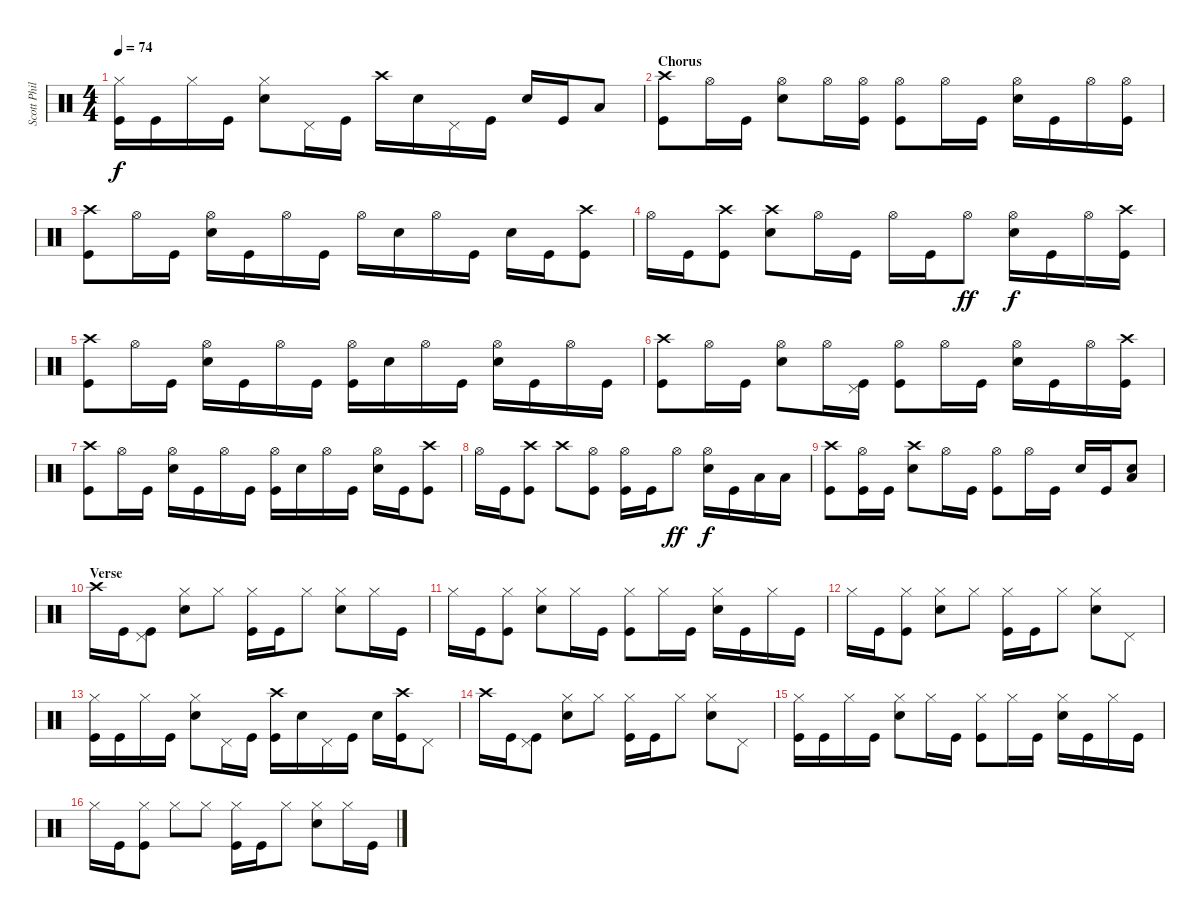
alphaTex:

\track ("Scott Phillips" "Scott Phil") {instrument percussion}
\staff {score}
\articulation defaults
\ts (4 4)
\tempo 74
\clef neutral
\ks c
("Hi-Hat (closed)" "Kick (hit)").16{dy f} "Kick (hit)".16 "Hi-Hat (closed)".16 "Kick (hit)".16 ("Hi-Hat (closed)" "Snare (hit) 2").8 "Pedal Hi-Hat (hit)".16 "Kick (hit)".16 "Crash high (hit)".16 "Snare (hit) 2".16 "Pedal Hi-Hat (hit)".16 "Kick (hit)".16 "Snare (hit) 2".16 "Kick (hit)".16 "Low Tom (hit)".8 |
\section ("" "Chorus")
("Crash high (hit)" "Kick (hit)").8 "Hi-Hat (open)".16 "Kick (hit)".16 ("Hi-Hat (open)" "Snare (hit) 2").8 "Hi-Hat (open)".16 ("Hi-Hat (open)" "Kick (hit)").16 ("Hi-Hat (open)" "Kick (hit)").8 "Hi-Hat (open)".16 "Kick (hit)".16 ("Hi-Hat (open)" "Snare (hit) 2").16 "Kick (hit)".16 "Hi-Hat (open)".16 ("Hi-Hat (open)" "Kick (hit)").16 |
("Crash high (hit)" "Kick (hit)").8 "Hi-Hat (open)".16 "Kick (hit)".16 ("Hi-Hat (open)" "Snare (hit) 2").16 "Kick (hit)".16 "Hi-Hat (open)".16 "Kick (hit)".16 "Hi-Hat (open)".16 "Snare (hit) 2".16 "Hi-Hat (open)".16 "Kick (hit)".16 "Snare (hit) 2".16 "Kick (hit)".16 ("Crash high (hit)" "Kick (hit)").8 |
"Hi-Hat (open)".16 "Kick (hit)".16 ("Crash high (hit)" "Kick (hit)").8 ("Crash high (hit)" "Snare (hit) 2").8 "Hi-Hat (open)".16 "Kick (hit)".16 "Hi-Hat (open)".16 "Kick (hit)".16 "Hi-Hat (open)".8{dy ff} ("Hi-Hat (open)" "Snare (hit) 2").16{dy f} "Kick (hit)".16 "Hi-Hat (open)".16 ("Crash high (hit)" "Kick (hit)").16 |
("Crash high (hit)" "Kick (hit)").8 "Hi-Hat (open)".16 "Kick (hit)".16 ("Hi-Hat (open)" "Snare (hit) 2").16 "Kick (hit)".16 "Hi-Hat (open)".16 "Kick (hit)".16 ("Hi-Hat (open)" "Kick (hit)").16 "Snare (hit) 2".16 "Hi-Hat (open)".16 "Kick (hit)".16 ("Hi-Hat (open)" "Snare (hit) 2").16 "Kick (hit)".16 "Hi-Hat (open)".16 "Kick (hit)".16 |
("Crash high (hit)" "Kick (hit)").8 "Hi-Hat (open)".16 "Kick (hit)".16 ("Hi-Hat (open)" "Snare (hit) 2").8 "Hi-Hat (open)".16 ("Pedal Hi-Hat (hit)" "Kick (hit)").16 ("Hi-Hat (open)" "Kick (hit)").8 "Hi-Hat (open)".16 "Kick (hit)".16 ("Hi-Hat (open)" "Snare (hit) 2").16 "Kick (hit)".16 "Hi-Hat (open)".16 ("Crash high (hit)" "Kick (hit)").16 |
("Crash high (hit)" "Kick (hit)").8 "Hi-Hat (open)".16 "Kick (hit)".16 ("Hi-Hat (open)" "Snare (hit) 2").16 "Kick (hit)".16 "Hi-Hat (open)".16 "Kick (hit)".16 ("Hi-Hat (open)" "Kick (hit)").16 "Snare (hit) 2".16 "Hi-Hat (open)".16 "Kick (hit)".16 ("Hi-Hat (open)" "Snare (hit) 2").16 "Kick (hit)".16 ("Crash high (hit)" "Kick (hit)").8 |
"Hi-Hat (open)".16 "Kick (hit)".16 ("Crash high (hit)" "Kick (hit)").8 "Crash high (hit)".8 ("Hi-Hat (open)" "Kick (hit)").8 ("Hi-Hat (open)" "Kick (hit)").16 "Kick (hit)".16 "Hi-Hat (open)".8{dy ff} ("Hi-Hat (open)" "Snare (hit) 2").16{dy f} "Kick (hit)".16 "Low Tom (hit)".16 "Low Tom (hit)".16 |
("Crash high (hit)" "Kick (hit)").8 ("Hi-Hat (open)" "Kick (hit)").16 "Kick (hit)".16 ("Crash high (hit)" "Snare (hit) 2").8 "Hi-Hat (open)".16 "Kick (hit)".16 ("Hi-Hat (open)" "Kick (hit)").8 "Hi-Hat (open)".16 "Kick (hit)".16 "Snare (hit) 2".16 "Kick (hit)".16 ("Low Tom (hit)" "Snare (hit) 2").8 |
\section ("" "Verse")
"Crash high (hit)".16 "Kick (hit)".16 ("Pedal Hi-Hat (hit)" "Kick (hit)").8 ("Hi-Hat (closed)" "Snare (hit) 2").8 "Hi-Hat (closed)".8 ("Hi-Hat (closed)" "Kick (hit)").16 "Kick (hit)".16 "Hi-Hat (closed)".8 ("Hi-Hat (closed)" "Snare (hit) 2").8 "Hi-Hat (closed)".16 "Kick (hit)".16 |
"Hi-Hat (closed)".16 "Kick (hit)".16 ("Hi-Hat (closed)" "Kick (hit)").8 ("Hi-Hat (closed)" "Snare (hit) 2").8 "Hi-Hat (closed)".16 "Kick (hit)".16 ("Hi-Hat (closed)" "Kick (hit)").8 "Hi-Hat (closed)".16 "Kick (hit)".16 ("Hi-Hat (closed)" "Snare (hit) 2").16 "Kick (hit)".16 "Hi-Hat (closed)".16 "Kick (hit)".16 |
"Hi-Hat (closed)".16 "Kick (hit)".16 ("Hi-Hat (closed)" "Kick (hit)").8 ("Hi-Hat (closed)" "Snare (hit) 2").8 "Hi-Hat (closed)".8 ("Hi-Hat (closed)" "Kick (hit)").16 "Kick (hit)".16 "Hi-Hat (closed)".8 ("Hi-Hat (closed)" "Snare (hit) 2").8 "Pedal Hi-Hat (hit)".8 |
("Hi-Hat (closed)" "Kick (hit)").16 "Kick (hit)".16 "Hi-Hat (closed)".16 "Kick (hit)".16 ("Hi-Hat (closed)" "Snare (hit) 2").8 "Pedal Hi-Hat (hit)".16 "Kick (hit)".16 ("Crash high (hit)" "Kick (hit)").16 "Snare (hit) 2".16 "Pedal Hi-Hat (hit)".16 "Kick (hit)".16 "Snare (hit) 2".16 ("Crash high (hit)" "Kick (hit)").16 "Pedal Hi-Hat (hit)".8 |
"Crash high (hit)".16 "Kick (hit)".16 ("Pedal Hi-Hat (hit)" "Kick (hit)").8 ("Hi-Hat (closed)" "Snare (hit) 2").8 "Hi-Hat (closed)".8 ("Hi-Hat (closed)" "Kick (hit)").16 "Kick (hit)".16 "Hi-Hat (closed)".8 ("Hi-Hat (closed)" "Snare (hit) 2").8 "Pedal Hi-Hat (hit)".8 |
("Hi-Hat (closed)" "Kick (hit)").16 "Kick (hit)".16 "Hi-Hat (closed)".16 "Kick (hit)".16 ("Hi-Hat (closed)" "Snare (hit) 2").8 "Hi-Hat (closed)".16 "Kick (hit)".16 ("Hi-Hat (closed)" "Kick (hit)").8 "Hi-Hat (closed)".16 "Kick (hit)".16 ("Hi-Hat (closed)" "Snare (hit) 2").16 "Kick (hit)".16 "Hi-Hat (closed)".16 "Kick (hit)".16 |
"Hi-Hat (closed)".16 "Kick (hit)".16 ("Hi-Hat (closed)" "Kick (hit)").8 "Hi-Hat (closed)".8 "Hi-Hat (closed)".8 ("Hi-Hat (closed)" "Kick (hit)").16 "Kick (hit)".16 "Hi-Hat (closed)".8 ("Hi-Hat (closed)" "Snare (hit) 2").8 "Hi-Hat (closed)".16 "Kick (hit)".16
